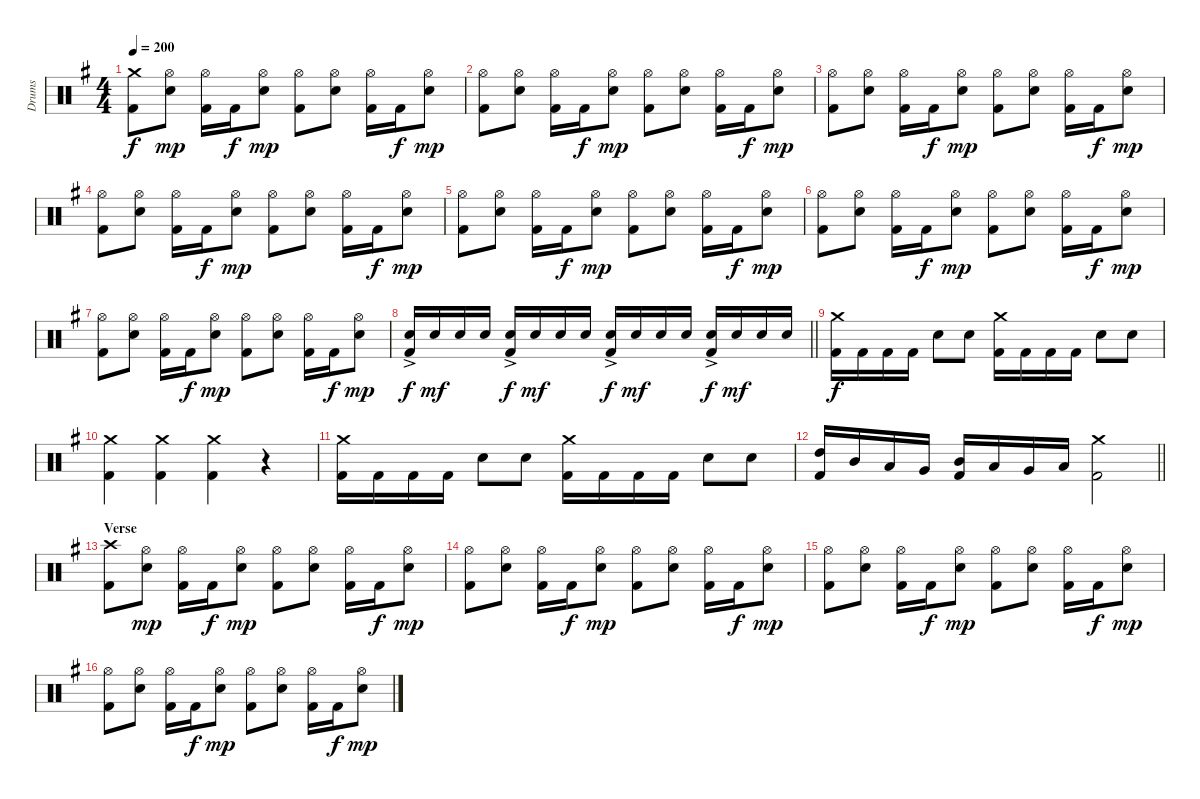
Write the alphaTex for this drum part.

\track ("Drums" "Drums") {instrument percussion}
\staff {score}
\articulation defaults
\ts (4 4)
\section ("" "")
\tempo 200
\clef neutral
\ks g
("Crash medium (hit)" "Kick (hit) 2").8{dy f} ("Hi-Hat (open)" "Snare (hit) 2").8{dy mp} ("Hi-Hat (open)" "Kick (hit) 2").16 "Kick (hit) 2".16{dy f} ("Hi-Hat (open)" "Snare (hit) 2").8{dy mp} ("Hi-Hat (open)" "Kick (hit) 2").8 ("Hi-Hat (open)" "Snare (hit) 2").8 ("Hi-Hat (open)" "Kick (hit) 2").16 "Kick (hit) 2".16{dy f} ("Hi-Hat (open)" "Snare (hit) 2").8{dy mp} |
("Hi-Hat (open)" "Kick (hit) 2").8 ("Hi-Hat (open)" "Snare (hit) 2").8 ("Hi-Hat (open)" "Kick (hit) 2").16 "Kick (hit) 2".16{dy f} ("Hi-Hat (open)" "Snare (hit) 2").8{dy mp} ("Hi-Hat (open)" "Kick (hit) 2").8 ("Hi-Hat (open)" "Snare (hit) 2").8 ("Hi-Hat (open)" "Kick (hit) 2").16 "Kick (hit) 2".16{dy f} ("Hi-Hat (open)" "Snare (hit) 2").8{dy mp} |
("Hi-Hat (open)" "Kick (hit) 2").8 ("Hi-Hat (open)" "Snare (hit) 2").8 ("Hi-Hat (open)" "Kick (hit) 2").16 "Kick (hit) 2".16{dy f} ("Hi-Hat (open)" "Snare (hit) 2").8{dy mp} ("Hi-Hat (open)" "Kick (hit) 2").8 ("Hi-Hat (open)" "Snare (hit) 2").8 ("Hi-Hat (open)" "Kick (hit) 2").16 "Kick (hit) 2".16{dy f} ("Hi-Hat (open)" "Snare (hit) 2").8{dy mp} |
("Hi-Hat (open)" "Kick (hit) 2").8 ("Hi-Hat (open)" "Snare (hit) 2").8 ("Hi-Hat (open)" "Kick (hit) 2").16 "Kick (hit) 2".16{dy f} ("Hi-Hat (open)" "Snare (hit) 2").8{dy mp} ("Hi-Hat (open)" "Kick (hit) 2").8 ("Hi-Hat (open)" "Snare (hit) 2").8 ("Hi-Hat (open)" "Kick (hit) 2").16 "Kick (hit) 2".16{dy f} ("Hi-Hat (open)" "Snare (hit) 2").8{dy mp} |
("Hi-Hat (open)" "Kick (hit) 2").8 ("Hi-Hat (open)" "Snare (hit) 2").8 ("Hi-Hat (open)" "Kick (hit) 2").16 "Kick (hit) 2".16{dy f} ("Hi-Hat (open)" "Snare (hit) 2").8{dy mp} ("Hi-Hat (open)" "Kick (hit) 2").8 ("Hi-Hat (open)" "Snare (hit) 2").8 ("Hi-Hat (open)" "Kick (hit) 2").16 "Kick (hit) 2".16{dy f} ("Hi-Hat (open)" "Snare (hit) 2").8{dy mp} |
("Hi-Hat (open)" "Kick (hit) 2").8 ("Hi-Hat (open)" "Snare (hit) 2").8 ("Hi-Hat (open)" "Kick (hit) 2").16 "Kick (hit) 2".16{dy f} ("Hi-Hat (open)" "Snare (hit) 2").8{dy mp} ("Hi-Hat (open)" "Kick (hit) 2").8 ("Hi-Hat (open)" "Snare (hit) 2").8 ("Hi-Hat (open)" "Kick (hit) 2").16 "Kick (hit) 2".16{dy f} ("Hi-Hat (open)" "Snare (hit) 2").8{dy mp} |
("Hi-Hat (open)" "Kick (hit) 2").8 ("Hi-Hat (open)" "Snare (hit) 2").8 ("Hi-Hat (open)" "Kick (hit) 2").16 "Kick (hit) 2".16{dy f} ("Hi-Hat (open)" "Snare (hit) 2").8{dy mp} ("Hi-Hat (open)" "Kick (hit) 2").8 ("Hi-Hat (open)" "Snare (hit) 2").8 ("Hi-Hat (open)" "Kick (hit) 2").16 "Kick (hit) 2".16{dy f} ("Hi-Hat (open)" "Snare (hit) 2").8{dy mp} |
\barLineRight lightlight
("Snare (hit) 2"{ac} "Kick (hit) 2").16{dy f} "Snare (hit) 2".16{dy mf} "Snare (hit) 2".16 "Snare (hit) 2".16 ("Snare (hit) 2"{ac} "Kick (hit) 2").16{dy f} "Snare (hit) 2".16{dy mf} "Snare (hit) 2".16 "Snare (hit) 2".16 ("Snare (hit) 2"{ac} "Kick (hit) 2").16{dy f} "Snare (hit) 2".16{dy mf} "Snare (hit) 2".16 "Snare (hit) 2".16 ("Snare (hit) 2"{ac} "Kick (hit) 2").16{dy f} "Snare (hit) 2".16{dy mf} "Snare (hit) 2".16 "Snare (hit) 2".16 |
\section ("" "")
("Crash medium (hit)" "Kick (hit) 2").16{dy f} "Kick (hit) 2".16 "Kick (hit) 2".16 "Kick (hit) 2".16 "Snare (hit) 2".8 "Snare (hit) 2".8 ("Crash medium (hit)" "Kick (hit) 2").16 "Kick (hit) 2".16 "Kick (hit) 2".16 "Kick (hit) 2".16 "Snare (hit) 2".8 "Snare (hit) 2".8 |
("Crash medium (hit)" "Kick (hit) 2").4 ("Crash medium (hit)" "Kick (hit) 2").4 ("Crash medium (hit)" "Kick (hit) 2").4 r.4 |
("Crash medium (hit)" "Kick (hit) 2").16 "Kick (hit) 2".16 "Kick (hit) 2".16 "Kick (hit) 2".16 "Snare (hit) 2".8 "Snare (hit) 2".8 ("Crash medium (hit)" "Kick (hit) 2").16 "Kick (hit) 2".16 "Kick (hit) 2".16 "Kick (hit) 2".16 "Snare (hit) 2".8 "Snare (hit) 2".8 |
\barLineRight lightlight
("High Tom (hit)" "Kick (hit) 2").16 "Mid Tom (hit)".16 "Low Tom (hit)".16 "Very Low Tom (hit)".16 ("Mid Tom (hit)" "Kick (hit) 2").16 "Low Tom (hit)".16 "Very Low Tom (hit)".16 "Low Floor Tom (hit)".16 ("Crash medium (hit)" "Kick (hit) 2").2 |
\section ("" "Verse")
("Crash high (hit)" "Kick (hit) 2").8 ("Hi-Hat (open)" "Snare (hit) 2").8{dy mp} ("Hi-Hat (open)" "Kick (hit) 2").16 "Kick (hit) 2".16{dy f} ("Hi-Hat (open)" "Snare (hit) 2").8{dy mp} ("Hi-Hat (open)" "Kick (hit) 2").8 ("Hi-Hat (open)" "Snare (hit) 2").8 ("Hi-Hat (open)" "Kick (hit) 2").16 "Kick (hit) 2".16{dy f} ("Hi-Hat (open)" "Snare (hit) 2").8{dy mp} |
("Hi-Hat (open)" "Kick (hit) 2").8 ("Hi-Hat (open)" "Snare (hit) 2").8 ("Hi-Hat (open)" "Kick (hit) 2").16 "Kick (hit) 2".16{dy f} ("Hi-Hat (open)" "Snare (hit) 2").8{dy mp} ("Hi-Hat (open)" "Kick (hit) 2").8 ("Hi-Hat (open)" "Snare (hit) 2").8 ("Hi-Hat (open)" "Kick (hit) 2").16 "Kick (hit) 2".16{dy f} ("Hi-Hat (open)" "Snare (hit) 2").8{dy mp} |
("Hi-Hat (open)" "Kick (hit) 2").8 ("Hi-Hat (open)" "Snare (hit) 2").8 ("Hi-Hat (open)" "Kick (hit) 2").16 "Kick (hit) 2".16{dy f} ("Hi-Hat (open)" "Snare (hit) 2").8{dy mp} ("Hi-Hat (open)" "Kick (hit) 2").8 ("Hi-Hat (open)" "Snare (hit) 2").8 ("Hi-Hat (open)" "Kick (hit) 2").16 "Kick (hit) 2".16{dy f} ("Hi-Hat (open)" "Snare (hit) 2").8{dy mp} |
("Hi-Hat (open)" "Kick (hit) 2").8 ("Hi-Hat (open)" "Snare (hit) 2").8 ("Hi-Hat (open)" "Kick (hit) 2").16 "Kick (hit) 2".16{dy f} ("Hi-Hat (open)" "Snare (hit) 2").8{dy mp} ("Hi-Hat (open)" "Kick (hit) 2").8 ("Hi-Hat (open)" "Snare (hit) 2").8 ("Hi-Hat (open)" "Kick (hit) 2").16 "Kick (hit) 2".16{dy f} ("Hi-Hat (open)" "Snare (hit) 2").8{dy mp}
